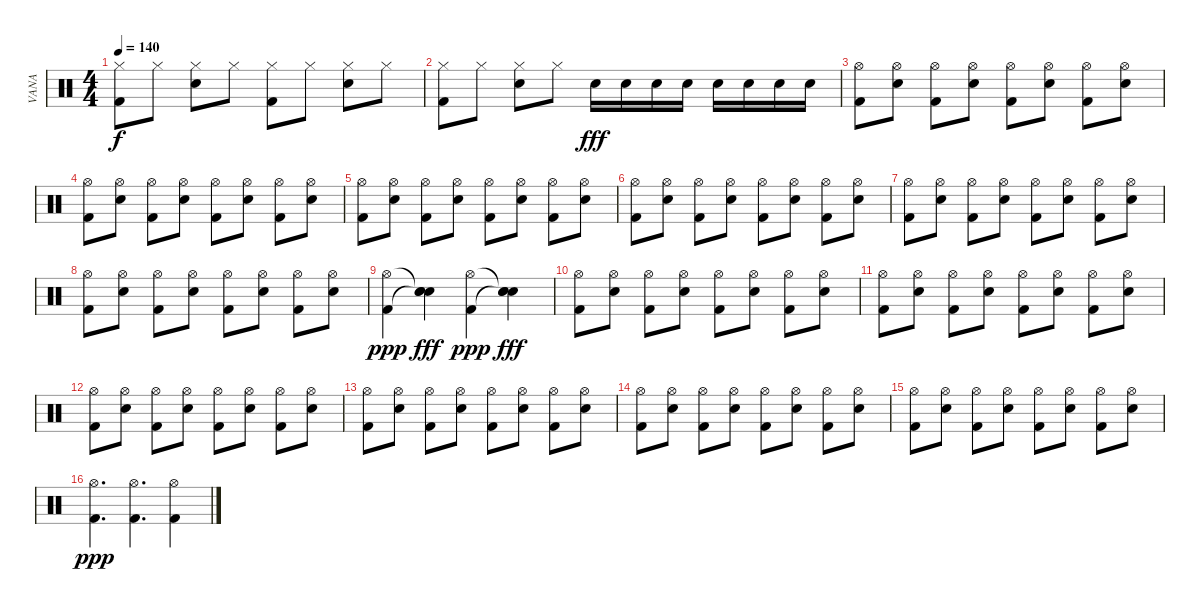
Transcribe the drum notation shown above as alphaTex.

\track ("VANA" "VANA") {instrument percussion}
\staff {score}
\articulation defaults
\ts (4 4)
\tempo 140
\clef neutral
\ks c
("Hi-Hat (closed)" "Kick (hit) 2").8{dy f} "Hi-Hat (closed)".8 ("Hi-Hat (closed)" "Electric Snare (hit)").8 "Hi-Hat (closed)".8 ("Hi-Hat (closed)" "Kick (hit) 2").8 "Hi-Hat (closed)".8 ("Hi-Hat (closed)" "Electric Snare (hit)").8 "Hi-Hat (closed)".8 |
("Hi-Hat (closed)" "Kick (hit) 2").8 "Hi-Hat (closed)".8 ("Hi-Hat (closed)" "Electric Snare (hit)").8 "Hi-Hat (closed)".8 "Electric Snare (hit)".16{dy fff} "Electric Snare (hit)".16 "Electric Snare (hit)".16 "Electric Snare (hit)".16 "Electric Snare (hit)".16 "Electric Snare (hit)".16 "Electric Snare (hit)".16 "Electric Snare (hit)".16 |
("Hi-Hat (open)" "Kick (hit) 2").8 ("Hi-Hat (open)" "Electric Snare (hit)").8 ("Hi-Hat (open)" "Kick (hit) 2").8 ("Hi-Hat (open)" "Electric Snare (hit)").8 ("Hi-Hat (open)" "Kick (hit) 2").8 ("Hi-Hat (open)" "Electric Snare (hit)").8 ("Hi-Hat (open)" "Kick (hit) 2").8 ("Hi-Hat (open)" "Electric Snare (hit)").8 |
("Hi-Hat (open)" "Kick (hit) 2").8 ("Hi-Hat (open)" "Electric Snare (hit)").8 ("Hi-Hat (open)" "Kick (hit) 2").8 ("Hi-Hat (open)" "Electric Snare (hit)").8 ("Hi-Hat (open)" "Kick (hit) 2").8 ("Hi-Hat (open)" "Electric Snare (hit)").8 ("Hi-Hat (open)" "Kick (hit) 2").8 ("Hi-Hat (open)" "Electric Snare (hit)").8 |
("Hi-Hat (open)" "Kick (hit) 2").8 ("Hi-Hat (open)" "Electric Snare (hit)").8 ("Hi-Hat (open)" "Kick (hit) 2").8 ("Hi-Hat (open)" "Electric Snare (hit)").8 ("Hi-Hat (open)" "Kick (hit) 2").8 ("Hi-Hat (open)" "Electric Snare (hit)").8 ("Hi-Hat (open)" "Kick (hit) 2").8 ("Hi-Hat (open)" "Electric Snare (hit)").8 |
("Hi-Hat (open)" "Kick (hit) 2").8 ("Hi-Hat (open)" "Electric Snare (hit)").8 ("Hi-Hat (open)" "Kick (hit) 2").8 ("Hi-Hat (open)" "Electric Snare (hit)").8 ("Hi-Hat (open)" "Kick (hit) 2").8 ("Hi-Hat (open)" "Electric Snare (hit)").8 ("Hi-Hat (open)" "Kick (hit) 2").8 ("Hi-Hat (open)" "Electric Snare (hit)").8 |
("Hi-Hat (open)" "Kick (hit) 2").8 ("Hi-Hat (open)" "Electric Snare (hit)").8 ("Hi-Hat (open)" "Kick (hit) 2").8 ("Hi-Hat (open)" "Electric Snare (hit)").8 ("Hi-Hat (open)" "Kick (hit) 2").8 ("Hi-Hat (open)" "Electric Snare (hit)").8 ("Hi-Hat (open)" "Kick (hit) 2").8 ("Hi-Hat (open)" "Electric Snare (hit)").8 |
("Hi-Hat (open)" "Kick (hit) 2").8 ("Hi-Hat (open)" "Electric Snare (hit)").8 ("Hi-Hat (open)" "Kick (hit) 2").8 ("Hi-Hat (open)" "Electric Snare (hit)").8 ("Hi-Hat (open)" "Kick (hit) 2").8 ("Hi-Hat (open)" "Electric Snare (hit)").8 ("Hi-Hat (open)" "Kick (hit) 2").8 ("Hi-Hat (open)" "Electric Snare (hit)").8 |
("Hi-Hat (open)" "Kick (hit) 2").4{dy ppp} ("Electric Snare (hit)"{t} "Electric Snare (hit)"{t} "Electric Snare (hit)").4{dy fff} ("Hi-Hat (open)" "Kick (hit) 2").4{dy ppp} ("Electric Snare (hit)"{t} "Electric Snare (hit)"{t} "Electric Snare (hit)").4{dy fff} |
("Hi-Hat (open)" "Kick (hit) 2").8 ("Hi-Hat (open)" "Electric Snare (hit)").8 ("Hi-Hat (open)" "Kick (hit) 2").8 ("Hi-Hat (open)" "Electric Snare (hit)").8 ("Hi-Hat (open)" "Kick (hit) 2").8 ("Hi-Hat (open)" "Electric Snare (hit)").8 ("Hi-Hat (open)" "Kick (hit) 2").8 ("Hi-Hat (open)" "Electric Snare (hit)").8 |
("Hi-Hat (open)" "Kick (hit) 2").8 ("Hi-Hat (open)" "Electric Snare (hit)").8 ("Hi-Hat (open)" "Kick (hit) 2").8 ("Hi-Hat (open)" "Electric Snare (hit)").8 ("Hi-Hat (open)" "Kick (hit) 2").8 ("Hi-Hat (open)" "Electric Snare (hit)").8 ("Hi-Hat (open)" "Kick (hit) 2").8 ("Hi-Hat (open)" "Electric Snare (hit)").8 |
("Hi-Hat (open)" "Kick (hit) 2").8 ("Hi-Hat (open)" "Electric Snare (hit)").8 ("Hi-Hat (open)" "Kick (hit) 2").8 ("Hi-Hat (open)" "Electric Snare (hit)").8 ("Hi-Hat (open)" "Kick (hit) 2").8 ("Hi-Hat (open)" "Electric Snare (hit)").8 ("Hi-Hat (open)" "Kick (hit) 2").8 ("Hi-Hat (open)" "Electric Snare (hit)").8 |
("Hi-Hat (open)" "Kick (hit) 2").8 ("Hi-Hat (open)" "Electric Snare (hit)").8 ("Hi-Hat (open)" "Kick (hit) 2").8 ("Hi-Hat (open)" "Electric Snare (hit)").8 ("Hi-Hat (open)" "Kick (hit) 2").8 ("Hi-Hat (open)" "Electric Snare (hit)").8 ("Hi-Hat (open)" "Kick (hit) 2").8 ("Hi-Hat (open)" "Electric Snare (hit)").8 |
("Hi-Hat (open)" "Kick (hit) 2").8 ("Hi-Hat (open)" "Electric Snare (hit)").8 ("Hi-Hat (open)" "Kick (hit) 2").8 ("Hi-Hat (open)" "Electric Snare (hit)").8 ("Hi-Hat (open)" "Kick (hit) 2").8 ("Hi-Hat (open)" "Electric Snare (hit)").8 ("Hi-Hat (open)" "Kick (hit) 2").8 ("Hi-Hat (open)" "Electric Snare (hit)").8 |
("Hi-Hat (open)" "Kick (hit) 2").8 ("Hi-Hat (open)" "Electric Snare (hit)").8 ("Hi-Hat (open)" "Kick (hit) 2").8 ("Hi-Hat (open)" "Electric Snare (hit)").8 ("Hi-Hat (open)" "Kick (hit) 2").8 ("Hi-Hat (open)" "Electric Snare (hit)").8 ("Hi-Hat (open)" "Kick (hit) 2").8 ("Hi-Hat (open)" "Electric Snare (hit)").8 |
("Hi-Hat (open)" "Kick (hit) 2").4{d dy ppp} ("Hi-Hat (open)" "Kick (hit) 2").4{d} ("Hi-Hat (open)" "Kick (hit) 2").4
